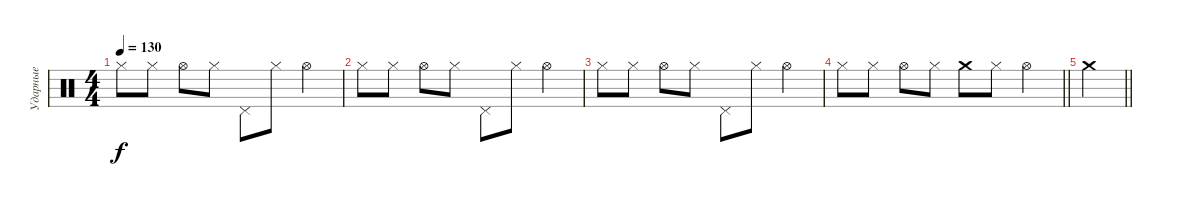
\track ("Ударные" "Ударные") {instrument percussion}
\staff {score}
\articulation defaults
\ts (4 4)
\tempo 130
\clef neutral
\ks c "Hi-Hat (closed)".8{dy f} "Hi-Hat (closed)".8 "Hi-Hat (open)".8 "Hi-Hat (closed)".8 "Pedal Hi-Hat (hit)".8 "Hi-Hat (closed)".8 "Hi-Hat (open)".4
|
"Hi-Hat (closed)".8 "Hi-Hat (closed)".8 "Hi-Hat (open)".8 "Hi-Hat (closed)".8 "Pedal Hi-Hat (hit)".8 "Hi-Hat (closed)".8 "Hi-Hat (open)".4 |
"Hi-Hat (closed)".8 "Hi-Hat (closed)".8 "Hi-Hat (open)".8 "Hi-Hat (closed)".8 "Pedal Hi-Hat (hit)".8 "Hi-Hat (closed)".8 "Hi-Hat (open)".4 |
\barLineRight lightlight "Hi-Hat (closed)".8 "Hi-Hat (closed)".8 "Hi-Hat (open)".8 "Hi-Hat (closed)".8 "Crash medium (hit)".8 "Hi-Hat (closed)".8 "Hi-Hat (open)".4
|
\barLineRight lightlight "Crash medium (hit)".4
